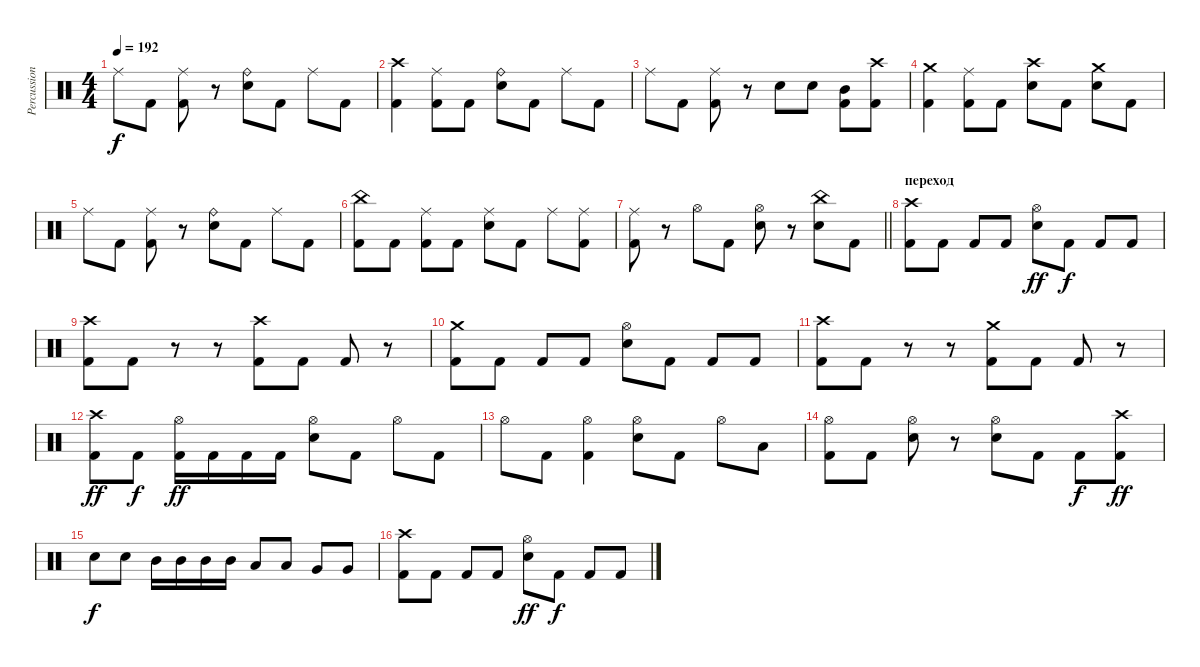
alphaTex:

\track ("Percussion" "Percussion") {instrument percussion}
\staff {score}
\articulation defaults
\ts (4 4)
\tempo 192
\clef neutral
\ks c "Ride (middle)".8{dy f} "Kick (hit) 2".8
("Ride (middle)" "Kick (hit) 2").8 r.8 ("Ride (bell)" "Electric Snare (hit)").8 "Kick (hit) 2".8 "Ride (middle)".8 "Kick (hit) 2".8 |
("Crash high (hit)" "Kick (hit) 2").4 ("Ride (middle)" "Kick (hit) 2").8 "Kick (hit) 2".8 ("Ride (bell)" "Electric Snare (hit)").8 "Kick (hit) 2".8 "Ride (middle)".8 "Kick (hit) 2".8 |
"Ride (middle)".8 "Kick (hit) 2".8 ("Ride (middle)" "Kick (hit) 2").8 r.8 "Electric Snare (hit)".8 "Electric Snare (hit)".8 ("Mid Tom (hit)" "Kick (hit) 2").8 ("Crash high (hit)" "Kick (hit) 2").8 |
("Crash medium (hit)" "Kick (hit) 2").4 ("Ride (middle)" "Kick (hit) 2").8 "Kick (hit) 2".8 ("Crash high (hit)" "Electric Snare (hit)").8 "Kick (hit) 2".8 ("Crash medium (hit)" "Electric Snare (hit)").8 "Kick (hit) 2".8 |
"Ride (middle)".8 "Kick (hit) 2".8 ("Ride (middle)" "Kick (hit) 2").8 r.8 ("Ride (bell)" "Electric Snare (hit)").8 "Kick (hit) 2".8 "Ride (middle)".8 "Kick (hit) 2".8 |
("China (hit)" "Kick (hit) 2").8 "Kick (hit) 2".8 ("Ride (middle)" "Kick (hit) 2").8 "Kick (hit) 2".8 ("Ride (middle)" "Electric Snare (hit)").8 "Kick (hit) 2".8 "Ride (middle)".8 ("Ride (middle)" "Kick (hit) 2").8 |
\barLineRight lightlight
("Ride (middle)" "Kick (hit) 2").8 r.8 "Hi-Hat (open)".8 "Kick (hit) 2".8 ("Hi-Hat (open)" "Electric Snare (hit)").8 r.8 ("China (hit)" "Electric Snare (hit)").8 "Kick (hit) 2".8 |
\section ("" "переход")
("Crash high (hit)" "Kick (hit) 2").8 "Kick (hit) 2".8 "Kick (hit) 2".8 "Kick (hit) 2".8 ("Hi-Hat (open)" "Electric Snare (hit)").8{dy ff} "Kick (hit) 2".8{dy f} "Kick (hit) 2".8 "Kick (hit) 2".8 |
("Crash high (hit)" "Kick (hit) 2").8 "Kick (hit) 2".8 r.8 r.8 ("Crash high (hit)" "Kick (hit) 2").8 "Kick (hit) 2".8 "Kick (hit) 2".8 r.8 |
("Crash medium (hit)" "Kick (hit) 2").8 "Kick (hit) 2".8 "Kick (hit) 2".8 "Kick (hit) 2".8 ("Hi-Hat (open)" "Electric Snare (hit)").8 "Kick (hit) 2".8 "Kick (hit) 2".8 "Kick (hit) 2".8 |
("Crash high (hit)" "Kick (hit) 2").8 "Kick (hit) 2".8 r.8 r.8 ("Crash medium (hit)" "Kick (hit) 2").8 "Kick (hit) 2".8 "Kick (hit) 2".8 r.8 |
("Crash high (hit)" "Kick (hit) 2").8{dy ff} "Kick (hit) 2".8{dy f} ("Hi-Hat (open)" "Kick (hit) 2").16{dy ff} "Kick (hit) 2".16 "Kick (hit) 2".16 "Kick (hit) 2".16 ("Hi-Hat (open)" "Electric Snare (hit)").8 "Kick (hit) 2".8 "Hi-Hat (open)".8 "Kick (hit) 2".8 |
"Hi-Hat (open)".8 "Kick (hit) 2".8 ("Hi-Hat (open)" "Kick (hit) 2").4 ("Hi-Hat (open)" "Electric Snare (hit)").8 "Kick (hit) 2".8 "Hi-Hat (open)".8 "Low Tom (hit)".8 |
("Hi-Hat (open)" "Kick (hit) 2").8 "Kick (hit) 2".8 ("Hi-Hat (open)" "Electric Snare (hit)").8 r.8 ("Hi-Hat (open)" "Electric Snare (hit)").8 "Kick (hit) 2".8 "Kick (hit) 2".8{dy f} ("Crash high (hit)" "Kick (hit) 2").8{dy ff} |
"Electric Snare (hit)".8{dy f} "Electric Snare (hit)".8 "Mid Tom (hit)".16 "Mid Tom (hit)".16 "Mid Tom (hit)".16 "Mid Tom (hit)".16 "Low Tom (hit)".8 "Low Tom (hit)".8 "Very Low Tom (hit)".8 "Very Low Tom (hit)".8 |
("Crash high (hit)" "Kick (hit) 2").8 "Kick (hit) 2".8 "Kick (hit) 2".8 "Kick (hit) 2".8 ("Hi-Hat (open)" "Electric Snare (hit)").8{dy ff} "Kick (hit) 2".8{dy f} "Kick (hit) 2".8 "Kick (hit) 2".8
